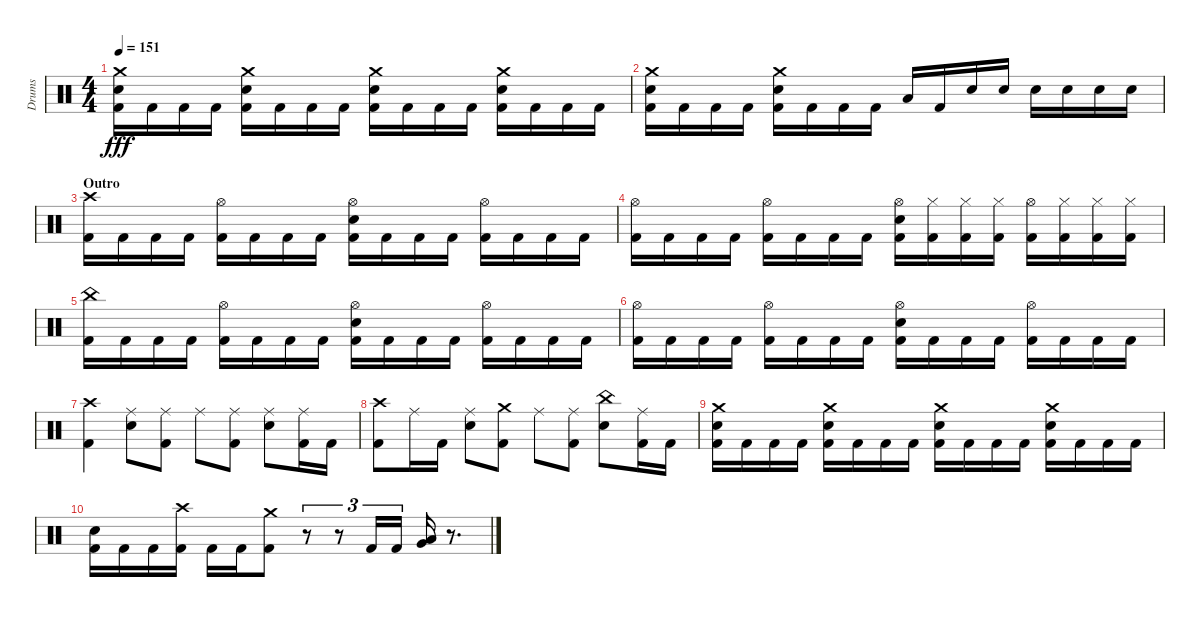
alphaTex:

\track ("Drums" "Drums") {instrument percussion}
\staff {score}
\articulation defaults
\ts (4 4)
\tempo 151
\clef neutral
\ks aminor
("Kick (hit) 2" "Snare (hit) 2" "Crash medium (hit)").16{dy fff} "Kick (hit) 2".16 "Kick (hit) 2".16 "Kick (hit) 2".16 ("Kick (hit) 2" "Snare (hit) 2" "Crash medium (hit)").16 "Kick (hit) 2".16 "Kick (hit) 2".16 "Kick (hit) 2".16 ("Kick (hit) 2" "Snare (hit) 2" "Crash medium (hit)").16 "Kick (hit) 2".16 "Kick (hit) 2".16 "Kick (hit) 2".16 ("Kick (hit) 2" "Snare (hit) 2" "Crash medium (hit)").16 "Kick (hit) 2".16 "Kick (hit) 2".16 "Kick (hit) 2".16 |
("Kick (hit) 2" "Snare (hit) 2" "Crash medium (hit)").16 "Kick (hit) 2".16 "Kick (hit) 2".16 "Kick (hit) 2".16 ("Kick (hit) 2" "Snare (hit) 2" "Crash medium (hit)").16 "Kick (hit) 2".16 "Kick (hit) 2".16 "Kick (hit) 2".16 "Low Tom (hit)".16 "Kick (hit) 2".16 "Snare (hit) 2".16 "Snare (hit) 2".16 "Snare (hit) 2".16 "Snare (hit) 2".16 "Snare (hit) 2".16 "Snare (hit) 2".16 |
\section ("" "Outro")
("Kick (hit) 2" "Crash high (hit)").16 "Kick (hit) 2".16 "Kick (hit) 2".16 "Kick (hit) 2".16 ("Kick (hit) 2" "Hi-Hat (open)").16 "Kick (hit) 2".16 "Kick (hit) 2".16 "Kick (hit) 2".16 ("Kick (hit) 2" "Snare (hit) 2" "Hi-Hat (open)").16 "Kick (hit) 2".16 "Kick (hit) 2".16 "Kick (hit) 2".16 ("Kick (hit) 2" "Hi-Hat (open)").16 "Kick (hit) 2".16 "Kick (hit) 2".16 "Kick (hit) 2".16 |
("Kick (hit) 2" "Hi-Hat (open)").16 "Kick (hit) 2".16 "Kick (hit) 2".16 "Kick (hit) 2".16 ("Kick (hit) 2" "Hi-Hat (open)").16 "Kick (hit) 2".16 "Kick (hit) 2".16 "Kick (hit) 2".16 ("Kick (hit) 2" "Snare (hit) 2" "Hi-Hat (open)").16 ("Kick (hit) 2" "Hi-Hat (closed)").16 ("Kick (hit) 2" "Hi-Hat (closed)").16 ("Kick (hit) 2" "Hi-Hat (closed)").16 ("Kick (hit) 2" "Hi-Hat (open)").16 ("Kick (hit) 2" "Hi-Hat (closed)").16 ("Kick (hit) 2" "Hi-Hat (closed)").16 ("Kick (hit) 2" "Hi-Hat (closed)").16 |
("Kick (hit) 2" "China (hit)").16 "Kick (hit) 2".16 "Kick (hit) 2".16 "Kick (hit) 2".16 ("Kick (hit) 2" "Hi-Hat (open)").16 "Kick (hit) 2".16 "Kick (hit) 2".16 "Kick (hit) 2".16 ("Kick (hit) 2" "Snare (hit) 2" "Hi-Hat (open)").16 "Kick (hit) 2".16 "Kick (hit) 2".16 "Kick (hit) 2".16 ("Kick (hit) 2" "Hi-Hat (open)").16 "Kick (hit) 2".16 "Kick (hit) 2".16 "Kick (hit) 2".16 |
("Kick (hit) 2" "Hi-Hat (open)").16 "Kick (hit) 2".16 "Kick (hit) 2".16 "Kick (hit) 2".16 ("Kick (hit) 2" "Hi-Hat (open)").16 "Kick (hit) 2".16 "Kick (hit) 2".16 "Kick (hit) 2".16 ("Kick (hit) 2" "Snare (hit) 2" "Hi-Hat (open)").16 "Kick (hit) 2".16 "Kick (hit) 2".16 "Kick (hit) 2".16 ("Kick (hit) 2" "Hi-Hat (open)").16 "Kick (hit) 2".16 "Kick (hit) 2".16 "Kick (hit) 2".16 |
("Kick (hit) 2" "Crash high (hit)").4 ("Snare (hit) 2" "Ride (middle)").8 ("Kick (hit) 2" "Ride (middle)").8 "Ride (middle)".8 ("Kick (hit) 2" "Ride (middle)").8 ("Snare (hit) 2" "Ride (middle)").8 ("Kick (hit) 2" "Ride (middle)").16 "Kick (hit) 2".16 |
("Kick (hit) 2" "Crash high (hit)").8 "Ride (middle)".16 "Kick (hit) 2".16 ("Snare (hit) 2" "Ride (middle)").8 ("Kick (hit) 2" "Crash medium (hit)").8 "Ride (middle)".8 ("Kick (hit) 2" "Ride (middle)").8 ("Snare (hit) 2" "China (hit)").8 ("Kick (hit) 2" "Ride (middle)").16 "Kick (hit) 2".16 |
("Kick (hit) 2" "Snare (hit) 2" "Crash medium (hit)").16 "Kick (hit) 2".16 "Kick (hit) 2".16 "Kick (hit) 2".16 ("Kick (hit) 2" "Snare (hit) 2" "Crash medium (hit)").16 "Kick (hit) 2".16 "Kick (hit) 2".16 "Kick (hit) 2".16 ("Kick (hit) 2" "Snare (hit) 2" "Crash medium (hit)").16 "Kick (hit) 2".16 "Kick (hit) 2".16 "Kick (hit) 2".16 ("Kick (hit) 2" "Snare (hit) 2" "Crash medium (hit)").16 "Kick (hit) 2".16 "Kick (hit) 2".16 "Kick (hit) 2".16 |
("Kick (hit) 2" "Snare (hit) 2").16 "Kick (hit) 2".16 "Kick (hit) 2".16 ("Kick (hit) 2" "Crash high (hit)").16 "Kick (hit) 2".16 "Kick (hit) 2".16 ("Kick (hit) 2" "Crash medium (hit)").8 r.8{tu (3 2)} r.8{tu (3 2)} "Kick (hit) 2".16{tu (3 2)} "Kick (hit) 2".16{tu (3 2)} ("Low Floor Tom (hit)" "Very Low Tom (hit)").16 r.8{d}
